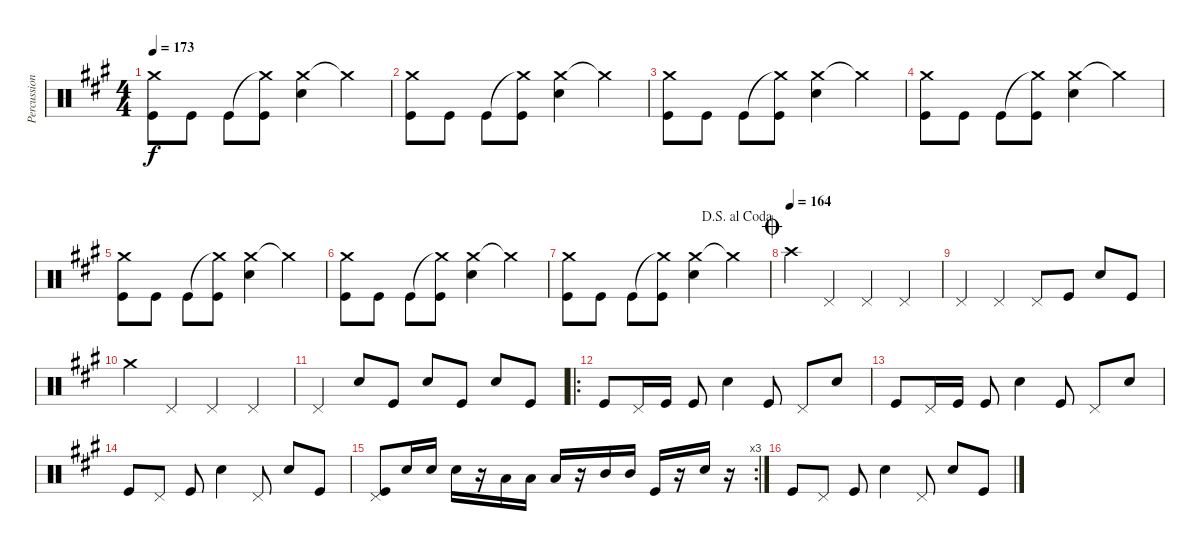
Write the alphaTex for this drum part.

\track ("Percussions" "Percussion") {instrument percussion}
\staff {score}
\articulation defaults
\ts (4 4)
\tempo 173
\clef neutral
\ks a
("Crash medium (hit)" "Kick (hit)").8{dy f} "Kick (hit)".8 "Kick (hit)".8 ("Crash medium (hit)"{t} "Kick (hit)").8 ("Crash medium (hit)" "Electric Snare (hit)").4 "Crash medium (hit)"{t}.4 |
("Crash medium (hit)" "Kick (hit)").8 "Kick (hit)".8 "Kick (hit)".8 ("Crash medium (hit)"{t} "Kick (hit)").8 ("Crash medium (hit)" "Electric Snare (hit)").4 "Crash medium (hit)"{t}.4 |
("Crash medium (hit)" "Kick (hit)").8 "Kick (hit)".8 "Kick (hit)".8 ("Crash medium (hit)"{t} "Kick (hit)").8 ("Crash medium (hit)" "Electric Snare (hit)").4 "Crash medium (hit)"{t}.4 |
("Crash medium (hit)" "Kick (hit)").8 "Kick (hit)".8 "Kick (hit)".8 ("Crash medium (hit)"{t} "Kick (hit)").8 ("Crash medium (hit)" "Electric Snare (hit)").4 "Crash medium (hit)"{t}.4 |
("Crash medium (hit)" "Kick (hit)").8 "Kick (hit)".8 "Kick (hit)".8 ("Crash medium (hit)"{t} "Kick (hit)").8 ("Crash medium (hit)" "Electric Snare (hit)").4 "Crash medium (hit)"{t}.4 |
("Crash medium (hit)" "Kick (hit)").8 "Kick (hit)".8 "Kick (hit)".8 ("Crash medium (hit)"{t} "Kick (hit)").8 ("Crash medium (hit)" "Electric Snare (hit)").4 "Crash medium (hit)"{t}.4 |
\jump dalsegnoalcoda
("Crash medium (hit)" "Kick (hit)").8 "Kick (hit)".8 "Kick (hit)".8 ("Crash medium (hit)"{t} "Kick (hit)").8 ("Crash medium (hit)" "Electric Snare (hit)").4 "Crash medium (hit)"{t}.4 |
\jump coda
\tempo (164)
"Crash high (hit)".4 "Pedal Hi-Hat (hit)".4 "Pedal Hi-Hat (hit)".4 "Pedal Hi-Hat (hit)".4 |
"Pedal Hi-Hat (hit)".4 "Pedal Hi-Hat (hit)".4 "Pedal Hi-Hat (hit)".8 "Kick (hit)".8 "Electric Snare (hit)".8 "Kick (hit)".8 |
"Crash medium (hit)".4 "Pedal Hi-Hat (hit)".4 "Pedal Hi-Hat (hit)".4 "Pedal Hi-Hat (hit)".4 |
"Pedal Hi-Hat (hit)".4 "Electric Snare (hit)".8 "Kick (hit)".8 "Electric Snare (hit)".8 "Kick (hit)".8 "Electric Snare (hit)".8 "Kick (hit)".8 |
\ro "Kick (hit)".8 "Pedal Hi-Hat (hit)".16 "Kick (hit)".16 "Kick (hit)".8 "Electric Snare (hit)".4 "Kick (hit)".8 "Pedal Hi-Hat (hit)".8 "Electric Snare (hit)".8
|
"Kick (hit)".8 "Pedal Hi-Hat (hit)".16 "Kick (hit)".16 "Kick (hit)".8 "Electric Snare (hit)".4 "Kick (hit)".8 "Pedal Hi-Hat (hit)".8 "Electric Snare (hit)".8 |
"Kick (hit)".8 "Pedal Hi-Hat (hit)".8 "Kick (hit)".8 "Electric Snare (hit)".4 "Pedal Hi-Hat (hit)".8 "Electric Snare (hit)".8 "Kick (hit)".8 |
\rc 3
("Pedal Hi-Hat (hit)" "Kick (hit)").8 "Electric Snare (hit)".16 "Electric Snare (hit)".16 "Electric Snare (hit)".16 r.16 "Low Floor Tom (hit)".16 "Low Floor Tom (hit)".16 "Low Floor Tom (hit)".16 r.16 "Mid Tom (hit)".16 "Mid Tom (hit)".16 "Kick (hit)".16 r.16 "Electric Snare (hit)".16 r.16 |
"Kick (hit)".8 "Pedal Hi-Hat (hit)".8 "Kick (hit)".8 "Electric Snare (hit)".4 "Pedal Hi-Hat (hit)".8 "Electric Snare (hit)".8 "Kick (hit)".8
